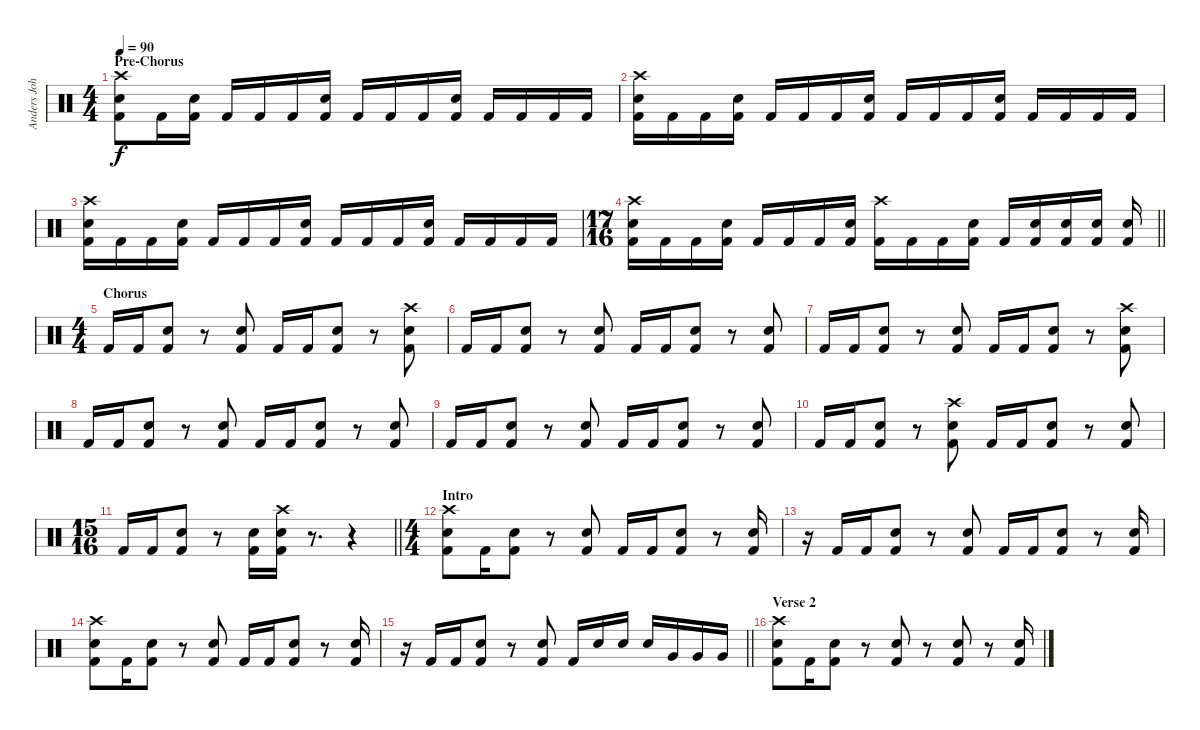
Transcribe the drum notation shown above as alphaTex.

\track ("Anders Johansson Drums" "Anders Joh") {instrument percussion}
\staff {score}
\articulation defaults
\ts (4 4)
\section ("" "Pre-Chorus")
\tempo 90
\clef neutral
\ks c
("Crash high (hit)" "Electric Snare (hit)" "Kick (hit) 2").8{dy f} "Kick (hit) 2".16 ("Electric Snare (hit)" "Kick (hit) 2").16 "Kick (hit) 2".16 "Kick (hit) 2".16 "Kick (hit) 2".16 ("Electric Snare (hit)" "Kick (hit) 2").16 "Kick (hit) 2".16 "Kick (hit) 2".16 "Kick (hit) 2".16 ("Electric Snare (hit)" "Kick (hit) 2").16 "Kick (hit) 2".16 "Kick (hit) 2".16 "Kick (hit) 2".16 "Kick (hit) 2".16 |
("Crash high (hit)" "Electric Snare (hit)" "Kick (hit) 2").16 "Kick (hit) 2".16 "Kick (hit) 2".16 ("Electric Snare (hit)" "Kick (hit) 2").16 "Kick (hit) 2".16 "Kick (hit) 2".16 "Kick (hit) 2".16 ("Electric Snare (hit)" "Kick (hit) 2").16 "Kick (hit) 2".16 "Kick (hit) 2".16 "Kick (hit) 2".16 ("Electric Snare (hit)" "Kick (hit) 2").16 "Kick (hit) 2".16 "Kick (hit) 2".16 "Kick (hit) 2".16 "Kick (hit) 2".16 |
("Crash high (hit)" "Electric Snare (hit)" "Kick (hit) 2").16 "Kick (hit) 2".16 "Kick (hit) 2".16 ("Electric Snare (hit)" "Kick (hit) 2").16 "Kick (hit) 2".16 "Kick (hit) 2".16 "Kick (hit) 2".16 ("Electric Snare (hit)" "Kick (hit) 2").16 "Kick (hit) 2".16 "Kick (hit) 2".16 "Kick (hit) 2".16 ("Electric Snare (hit)" "Kick (hit) 2").16 "Kick (hit) 2".16 "Kick (hit) 2".16 "Kick (hit) 2".16 "Kick (hit) 2".16 |
\ts (17 16)
\barLineRight lightlight
("Crash high (hit)" "Electric Snare (hit)" "Kick (hit) 2").16 "Kick (hit) 2".16 "Kick (hit) 2".16 ("Electric Snare (hit)" "Kick (hit) 2").16 "Kick (hit) 2".16 "Kick (hit) 2".16 "Kick (hit) 2".16 ("Electric Snare (hit)" "Kick (hit) 2").16 ("Crash high (hit)" "Kick (hit) 2").16 "Kick (hit) 2".16 "Kick (hit) 2".16 ("Electric Snare (hit)" "Kick (hit) 2").16 "Kick (hit) 2".16 ("Electric Snare (hit)" "Kick (hit) 2").16 ("Electric Snare (hit)" "Kick (hit) 2").16 ("Electric Snare (hit)" "Kick (hit) 2").16 ("Electric Snare (hit)" "Kick (hit) 2").16 |
\ts (4 4)
\section ("" "Chorus")
"Kick (hit) 2".16 "Kick (hit) 2".16 ("Electric Snare (hit)" "Kick (hit) 2").8 r.8 ("Electric Snare (hit)" "Kick (hit) 2").8 "Kick (hit) 2".16 "Kick (hit) 2".16 ("Electric Snare (hit)" "Kick (hit) 2").8 r.8 ("Crash high (hit)" "Electric Snare (hit)" "Kick (hit) 2").8 |
"Kick (hit) 2".16 "Kick (hit) 2".16 ("Electric Snare (hit)" "Kick (hit) 2").8 r.8 ("Electric Snare (hit)" "Kick (hit) 2").8 "Kick (hit) 2".16 "Kick (hit) 2".16 ("Electric Snare (hit)" "Kick (hit) 2").8 r.8 ("Electric Snare (hit)" "Kick (hit) 2").8 |
"Kick (hit) 2".16 "Kick (hit) 2".16 ("Electric Snare (hit)" "Kick (hit) 2").8 r.8 ("Electric Snare (hit)" "Kick (hit) 2").8 "Kick (hit) 2".16 "Kick (hit) 2".16 ("Electric Snare (hit)" "Kick (hit) 2").8 r.8 ("Crash high (hit)" "Electric Snare (hit)" "Kick (hit) 2").8 |
"Kick (hit) 2".16 "Kick (hit) 2".16 ("Electric Snare (hit)" "Kick (hit) 2").8 r.8 ("Electric Snare (hit)" "Kick (hit) 2").8 "Kick (hit) 2".16 "Kick (hit) 2".16 ("Electric Snare (hit)" "Kick (hit) 2").8 r.8 ("Electric Snare (hit)" "Kick (hit) 2").8 |
"Kick (hit) 2".16 "Kick (hit) 2".16 ("Electric Snare (hit)" "Kick (hit) 2").8 r.8 ("Electric Snare (hit)" "Kick (hit) 2").8 "Kick (hit) 2".16 "Kick (hit) 2".16 ("Electric Snare (hit)" "Kick (hit) 2").8 r.8 ("Electric Snare (hit)" "Kick (hit) 2").8 |
"Kick (hit) 2".16 "Kick (hit) 2".16 ("Electric Snare (hit)" "Kick (hit) 2").8 r.8 ("Crash high (hit)" "Electric Snare (hit)" "Kick (hit) 2").8 "Kick (hit) 2".16 "Kick (hit) 2".16 ("Electric Snare (hit)" "Kick (hit) 2").8 r.8 ("Electric Snare (hit)" "Kick (hit) 2").8 |
\ts (15 16)
\barLineRight lightlight "Kick (hit) 2".16 "Kick (hit) 2".16
("Electric Snare (hit)" "Kick (hit) 2").8 r.8 ("Electric Snare (hit)" "Kick (hit) 2").16 ("Crash high (hit)" "Electric Snare (hit)" "Kick (hit) 2").16 r.8{d} r.4 |
\ts (4 4)
\section ("" "Intro")
("Crash high (hit)" "Electric Snare (hit)" "Kick (hit) 2").8 "Kick (hit) 2".16 ("Electric Snare (hit)" "Kick (hit) 2").8 r.8 ("Electric Snare (hit)" "Kick (hit) 2").8 "Kick (hit) 2".16 "Kick (hit) 2".16 ("Electric Snare (hit)" "Kick (hit) 2").8 r.8 ("Electric Snare (hit)" "Kick (hit) 2").16 |
r.16 "Kick (hit) 2".16 "Kick (hit) 2".16 ("Electric Snare (hit)" "Kick (hit) 2").8 r.8 ("Electric Snare (hit)" "Kick (hit) 2").8 "Kick (hit) 2".16 "Kick (hit) 2".16 ("Electric Snare (hit)" "Kick (hit) 2").8 r.8 ("Electric Snare (hit)" "Kick (hit) 2").16 |
("Crash high (hit)" "Electric Snare (hit)" "Kick (hit) 2").8 "Kick (hit) 2".16 ("Electric Snare (hit)" "Kick (hit) 2").8 r.8 ("Electric Snare (hit)" "Kick (hit) 2").8 "Kick (hit) 2".16 "Kick (hit) 2".16 ("Electric Snare (hit)" "Kick (hit) 2").8 r.8 ("Electric Snare (hit)" "Kick (hit) 2").16 |
\barLineRight lightlight
r.16 "Kick (hit) 2".16 "Kick (hit) 2".16 ("Electric Snare (hit)" "Kick (hit) 2").8 r.8 ("Electric Snare (hit)" "Kick (hit) 2").8 "Kick (hit) 2".16 "Electric Snare (hit)".16 "Electric Snare (hit)".16 "Electric Snare (hit)".16 "Very Low Tom (hit)".16 "Very Low Tom (hit)".16 "Very Low Tom (hit)".16 |
\section ("" "Verse 2")
("Crash high (hit)" "Electric Snare (hit)" "Kick (hit) 2").8 "Kick (hit) 2".16 ("Electric Snare (hit)" "Kick (hit) 2").8 r.8 ("Electric Snare (hit)" "Kick (hit) 2").8 r.8 ("Electric Snare (hit)" "Kick (hit) 2").8 r.8 ("Electric Snare (hit)" "Kick (hit) 2").16
